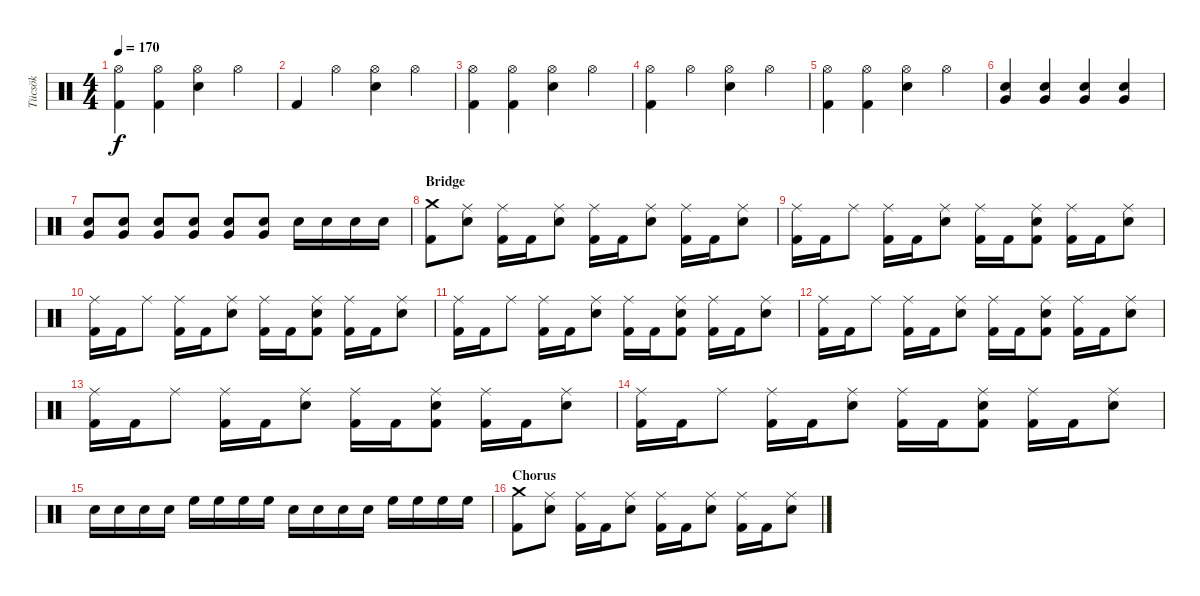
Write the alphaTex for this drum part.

\track ("Tücsök" "Tücsök") {instrument percussion}
\staff {score}
\articulation defaults
\ts (4 4)
\tempo 170
\clef neutral
\ks c
("Hi-Hat (open)" "Kick (hit) 2").4{dy f} ("Hi-Hat (open)" "Kick (hit) 2").4 ("Hi-Hat (open)" "Electric Snare (hit)").4 "Hi-Hat (open)".4 |
"Kick (hit) 2".4 "Hi-Hat (open)".4 ("Hi-Hat (open)" "Electric Snare (hit)").4 "Hi-Hat (open)".4 |
("Hi-Hat (open)" "Kick (hit) 2").4 ("Hi-Hat (open)" "Kick (hit) 2").4 ("Hi-Hat (open)" "Electric Snare (hit)").4 "Hi-Hat (open)".4 |
("Hi-Hat (open)" "Kick (hit) 2").4 "Hi-Hat (open)".4 ("Hi-Hat (open)" "Electric Snare (hit)").4 "Hi-Hat (open)".4 |
("Hi-Hat (open)" "Kick (hit) 2").4 ("Hi-Hat (open)" "Kick (hit) 2").4 ("Hi-Hat (open)" "Electric Snare (hit)").4 "Hi-Hat (open)".4 |
("Very Low Tom (hit)" "Electric Snare (hit)").4 ("Very Low Tom (hit)" "Electric Snare (hit)").4 ("Very Low Tom (hit)" "Electric Snare (hit)").4 ("Very Low Tom (hit)" "Electric Snare (hit)").4 |
("Very Low Tom (hit)" "Electric Snare (hit)").8 ("Very Low Tom (hit)" "Electric Snare (hit)").8 ("Very Low Tom (hit)" "Electric Snare (hit)").8 ("Very Low Tom (hit)" "Electric Snare (hit)").8 ("Very Low Tom (hit)" "Electric Snare (hit)").8 ("Very Low Tom (hit)" "Electric Snare (hit)").8 "Electric Snare (hit)".16 "Electric Snare (hit)".16 "Electric Snare (hit)".16 "Electric Snare (hit)".16 |
\section ("" "Bridge")
("Crash medium (hit)" "Kick (hit) 2").8 ("Ride (middle)" "Electric Snare (hit)").8 ("Ride (middle)" "Kick (hit) 2").16 "Kick (hit) 2".16 ("Ride (middle)" "Electric Snare (hit)").8 ("Ride (middle)" "Kick (hit) 2").16 "Kick (hit) 2".16 ("Ride (middle)" "Electric Snare (hit)").8 ("Ride (middle)" "Kick (hit) 2").16 "Kick (hit) 2".16 ("Ride (middle)" "Electric Snare (hit)").8 |
("Ride (middle)" "Kick (hit) 2").16 "Kick (hit) 2".16 "Ride (middle)".8 ("Ride (middle)" "Kick (hit) 2").16 "Kick (hit) 2".16 ("Ride (middle)" "Electric Snare (hit)").8 ("Ride (middle)" "Kick (hit) 2").16 "Kick (hit) 2".16 ("Ride (middle)" "Electric Snare (hit)" "Kick (hit) 2").8 ("Ride (middle)" "Kick (hit) 2").16 "Kick (hit) 2".16 ("Ride (middle)" "Electric Snare (hit)").8 |
("Ride (middle)" "Kick (hit) 2").16 "Kick (hit) 2".16 "Ride (middle)".8 ("Ride (middle)" "Kick (hit) 2").16 "Kick (hit) 2".16 ("Ride (middle)" "Electric Snare (hit)").8 ("Ride (middle)" "Kick (hit) 2").16 "Kick (hit) 2".16 ("Ride (middle)" "Electric Snare (hit)" "Kick (hit) 2").8 ("Ride (middle)" "Kick (hit) 2").16 "Kick (hit) 2".16 ("Ride (middle)" "Electric Snare (hit)").8 |
("Ride (middle)" "Kick (hit) 2").16 "Kick (hit) 2".16 "Ride (middle)".8 ("Ride (middle)" "Kick (hit) 2").16 "Kick (hit) 2".16 ("Ride (middle)" "Electric Snare (hit)").8 ("Ride (middle)" "Kick (hit) 2").16 "Kick (hit) 2".16 ("Ride (middle)" "Electric Snare (hit)" "Kick (hit) 2").8 ("Ride (middle)" "Kick (hit) 2").16 "Kick (hit) 2".16 ("Ride (middle)" "Electric Snare (hit)").8 |
("Ride (middle)" "Kick (hit) 2").16 "Kick (hit) 2".16 "Ride (middle)".8 ("Ride (middle)" "Kick (hit) 2").16 "Kick (hit) 2".16 ("Ride (middle)" "Electric Snare (hit)").8 ("Ride (middle)" "Kick (hit) 2").16 "Kick (hit) 2".16 ("Ride (middle)" "Electric Snare (hit)" "Kick (hit) 2").8 ("Ride (middle)" "Kick (hit) 2").16 "Kick (hit) 2".16 ("Ride (middle)" "Electric Snare (hit)").8 |
("Ride (middle)" "Kick (hit) 2").16 "Kick (hit) 2".16 "Ride (middle)".8 ("Ride (middle)" "Kick (hit) 2").16 "Kick (hit) 2".16 ("Ride (middle)" "Electric Snare (hit)").8 ("Ride (middle)" "Kick (hit) 2").16 "Kick (hit) 2".16 ("Ride (middle)" "Electric Snare (hit)" "Kick (hit) 2").8 ("Ride (middle)" "Kick (hit) 2").16 "Kick (hit) 2".16 ("Ride (middle)" "Electric Snare (hit)").8 |
("Ride (middle)" "Kick (hit) 2").16 "Kick (hit) 2".16 "Ride (middle)".8 ("Ride (middle)" "Kick (hit) 2").16 "Kick (hit) 2".16 ("Ride (middle)" "Electric Snare (hit)").8 ("Ride (middle)" "Kick (hit) 2").16 "Kick (hit) 2".16 ("Ride (middle)" "Electric Snare (hit)" "Kick (hit) 2").8 ("Ride (middle)" "Kick (hit) 2").16 "Kick (hit) 2".16 ("Ride (middle)" "Electric Snare (hit)").8 |
"Electric Snare (hit)".16 "Electric Snare (hit)".16 "Electric Snare (hit)".16 "Electric Snare (hit)".16 "High Floor Tom (hit)".16 "High Floor Tom (hit)".16 "High Floor Tom (hit)".16 "High Floor Tom (hit)".16 "Electric Snare (hit)".16 "Electric Snare (hit)".16 "Electric Snare (hit)".16 "Electric Snare (hit)".16 "High Floor Tom (hit)".16 "High Floor Tom (hit)".16 "High Floor Tom (hit)".16 "High Floor Tom (hit)".16 |
\section ("" "Chorus")
("Crash medium (hit)" "Kick (hit) 2").8 ("Ride (middle)" "Electric Snare (hit)").8 ("Ride (middle)" "Kick (hit) 2").16 "Kick (hit) 2".16 ("Ride (middle)" "Electric Snare (hit)").8 ("Ride (middle)" "Kick (hit) 2").16 "Kick (hit) 2".16 ("Ride (middle)" "Electric Snare (hit)").8 ("Ride (middle)" "Kick (hit) 2").16 "Kick (hit) 2".16 ("Ride (middle)" "Electric Snare (hit)").8
